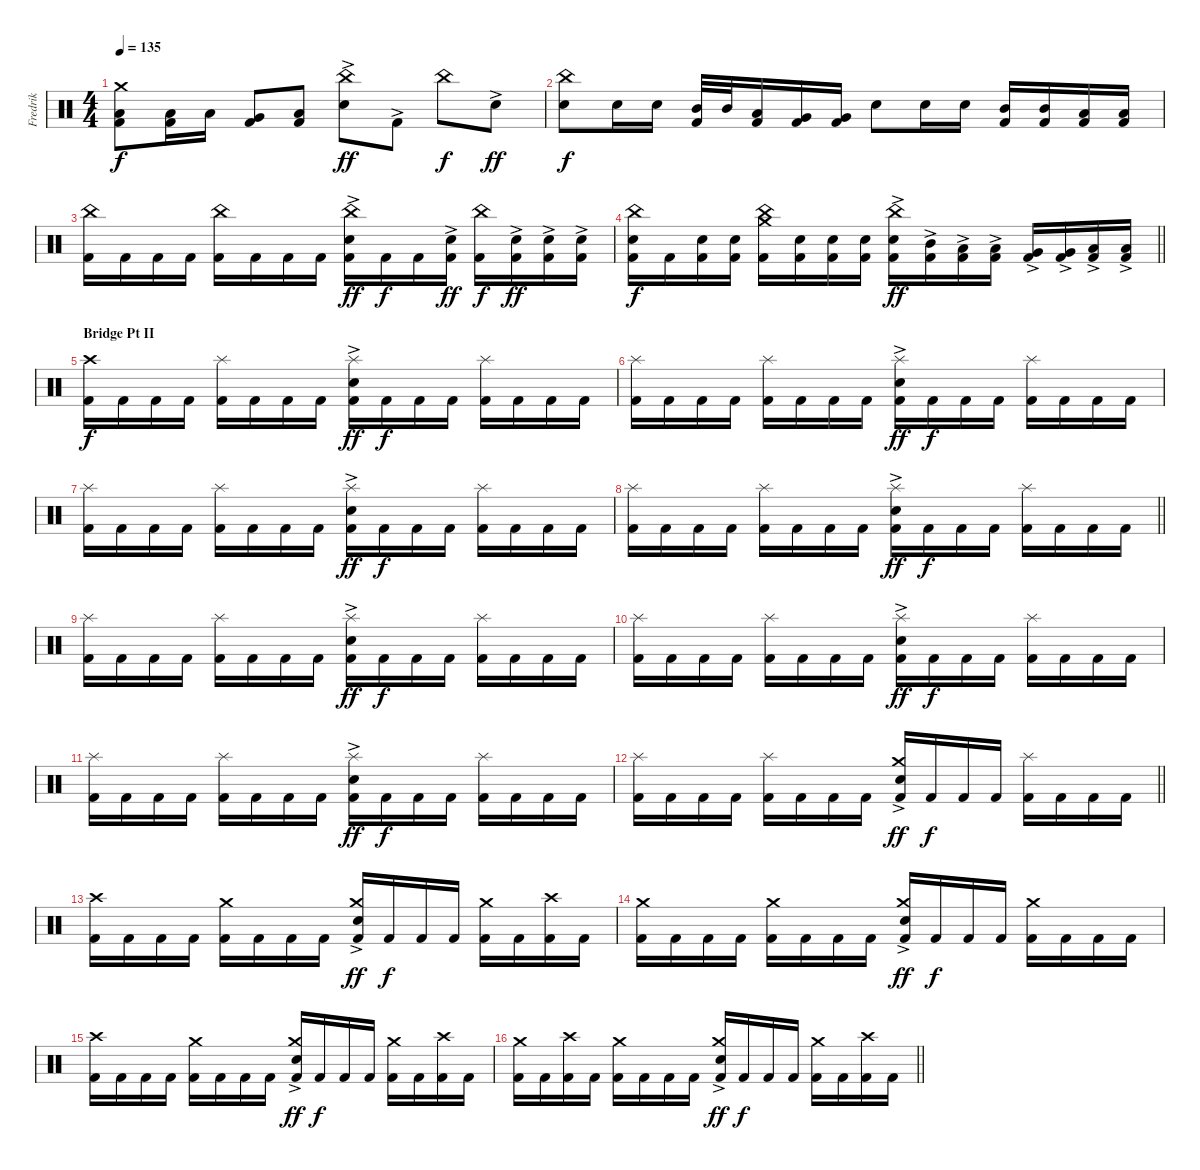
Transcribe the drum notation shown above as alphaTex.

\track ("Fredrik" "Fredrik") {instrument percussion}
\staff {score}
\articulation defaults
\ts (4 4)
\section ("" "")
\tempo 135
\clef neutral
\ks c
("Kick (hit) 2" "Low Tom (hit)" "Crash medium (hit)").8{dy f} ("Kick (hit) 2" "Low Tom (hit)").16 "Low Tom (hit)".16 ("Kick (hit) 2" "Very Low Tom (hit)").8 ("Kick (hit) 2" "Low Floor Tom (hit)").8 ("Snare (hit) 2"{ac} "China (hit)").8{dy ff} "Kick (hit) 2"{ac}.8 "China (hit)".8{dy f} "Snare (hit) 2"{ac}.8{dy ff} |
("Snare (hit) 2" "China (hit)").8{dy f} "Snare (hit) 2".16 "Snare (hit) 2".16 ("Kick (hit) 2" "Mid Tom (hit)").32 "Mid Tom (hit)".32 ("Kick (hit) 2" "Low Tom (hit)").16 ("Kick (hit) 2" "Very Low Tom (hit)").16 ("Kick (hit) 2" "Very Low Tom (hit)").16 "Snare (hit) 2".8 "Snare (hit) 2".16 "Snare (hit) 2".16 ("Kick (hit) 2" "Mid Tom (hit)").16 ("Kick (hit) 2" "Mid Tom (hit)").16 ("Kick (hit) 2" "Low Tom (hit)").16 ("Kick (hit) 2" "Low Tom (hit)").16 |
("Kick (hit) 2" "China (hit)").16 "Kick (hit) 2".16 "Kick (hit) 2".16 "Kick (hit) 2".16 ("Kick (hit) 2" "China (hit)").16 "Kick (hit) 2".16 "Kick (hit) 2".16 "Kick (hit) 2".16 ("Kick (hit) 2" "Snare (hit) 2"{ac} "China (hit)").16{dy ff} "Kick (hit) 2".16{dy f} "Kick (hit) 2".16 ("Kick (hit) 2" "Snare (hit) 2"{ac}).16{dy ff} ("Kick (hit) 2" "China (hit)").16{dy f} ("Kick (hit) 2" "Snare (hit) 2"{ac}).16{dy ff} ("Kick (hit) 2" "Snare (hit) 2"{ac}).16 ("Kick (hit) 2" "Snare (hit) 2"{ac}).16 |
\barLineRight lightlight
("Kick (hit) 2" "Snare (hit) 2" "China (hit)").16{dy f} "Kick (hit) 2".16 ("Kick (hit) 2" "Snare (hit) 2").16 ("Kick (hit) 2" "Snare (hit) 2").16 ("Kick (hit) 2" "China (hit)" "Crash medium (hit)").16 ("Kick (hit) 2" "Snare (hit) 2").16 ("Kick (hit) 2" "Snare (hit) 2").16 ("Kick (hit) 2" "Snare (hit) 2").16 ("Kick (hit) 2" "Snare (hit) 2"{ac} "China (hit)").16{dy ff} ("Kick (hit) 2" "Mid Tom (hit)"{ac}).16 ("Kick (hit) 2" "Low Tom (hit)"{ac}).16 ("Kick (hit) 2" "Low Tom (hit)"{ac}).16 ("Kick (hit) 2" "Very Low Tom (hit)"{ac}).16 ("Kick (hit) 2" "Very Low Tom (hit)"{ac}).16 ("Kick (hit) 2" "Low Floor Tom (hit)"{ac}).16 ("Kick (hit) 2" "Low Floor Tom (hit)"{ac}).16 |
\section ("" "Bridge Pt II")
("Kick (hit) 2" "Crash high (hit)").16{dy f} "Kick (hit) 2".16 "Kick (hit) 2".16 "Kick (hit) 2".16 ("Kick (hit) 2" "Splash (hit)").16 "Kick (hit) 2".16 "Kick (hit) 2".16 "Kick (hit) 2".16 ("Kick (hit) 2" "Snare (hit) 2"{ac} "Splash (hit)").16{dy ff} "Kick (hit) 2".16{dy f} "Kick (hit) 2".16 "Kick (hit) 2".16 ("Kick (hit) 2" "Splash (hit)").16 "Kick (hit) 2".16 "Kick (hit) 2".16 "Kick (hit) 2".16 |
("Kick (hit) 2" "Splash (hit)").16 "Kick (hit) 2".16 "Kick (hit) 2".16 "Kick (hit) 2".16 ("Kick (hit) 2" "Splash (hit)").16 "Kick (hit) 2".16 "Kick (hit) 2".16 "Kick (hit) 2".16 ("Kick (hit) 2" "Snare (hit) 2"{ac} "Splash (hit)").16{dy ff} "Kick (hit) 2".16{dy f} "Kick (hit) 2".16 "Kick (hit) 2".16 ("Kick (hit) 2" "Splash (hit)").16 "Kick (hit) 2".16 "Kick (hit) 2".16 "Kick (hit) 2".16 |
("Kick (hit) 2" "Splash (hit)").16 "Kick (hit) 2".16 "Kick (hit) 2".16 "Kick (hit) 2".16 ("Kick (hit) 2" "Splash (hit)").16 "Kick (hit) 2".16 "Kick (hit) 2".16 "Kick (hit) 2".16 ("Kick (hit) 2" "Snare (hit) 2"{ac} "Splash (hit)").16{dy ff} "Kick (hit) 2".16{dy f} "Kick (hit) 2".16 "Kick (hit) 2".16 ("Kick (hit) 2" "Splash (hit)").16 "Kick (hit) 2".16 "Kick (hit) 2".16 "Kick (hit) 2".16 |
\barLineRight lightlight
("Kick (hit) 2" "Splash (hit)").16 "Kick (hit) 2".16 "Kick (hit) 2".16 "Kick (hit) 2".16 ("Kick (hit) 2" "Splash (hit)").16 "Kick (hit) 2".16 "Kick (hit) 2".16 "Kick (hit) 2".16 ("Kick (hit) 2" "Snare (hit) 2"{ac} "Splash (hit)").16{dy ff} "Kick (hit) 2".16{dy f} "Kick (hit) 2".16 "Kick (hit) 2".16 ("Kick (hit) 2" "Splash (hit)").16 "Kick (hit) 2".16 "Kick (hit) 2".16 "Kick (hit) 2".16 |
\section ("" "")
("Kick (hit) 2" "Splash (hit)").16 "Kick (hit) 2".16 "Kick (hit) 2".16 "Kick (hit) 2".16 ("Kick (hit) 2" "Splash (hit)").16 "Kick (hit) 2".16 "Kick (hit) 2".16 "Kick (hit) 2".16 ("Kick (hit) 2" "Snare (hit) 2"{ac} "Splash (hit)").16{dy ff} "Kick (hit) 2".16{dy f} "Kick (hit) 2".16 "Kick (hit) 2".16 ("Kick (hit) 2" "Splash (hit)").16 "Kick (hit) 2".16 "Kick (hit) 2".16 "Kick (hit) 2".16 |
("Kick (hit) 2" "Splash (hit)").16 "Kick (hit) 2".16 "Kick (hit) 2".16 "Kick (hit) 2".16 ("Kick (hit) 2" "Splash (hit)").16 "Kick (hit) 2".16 "Kick (hit) 2".16 "Kick (hit) 2".16 ("Kick (hit) 2" "Snare (hit) 2"{ac} "Splash (hit)").16{dy ff} "Kick (hit) 2".16{dy f} "Kick (hit) 2".16 "Kick (hit) 2".16 ("Kick (hit) 2" "Splash (hit)").16 "Kick (hit) 2".16 "Kick (hit) 2".16 "Kick (hit) 2".16 |
("Kick (hit) 2" "Splash (hit)").16 "Kick (hit) 2".16 "Kick (hit) 2".16 "Kick (hit) 2".16 ("Kick (hit) 2" "Splash (hit)").16 "Kick (hit) 2".16 "Kick (hit) 2".16 "Kick (hit) 2".16 ("Kick (hit) 2" "Snare (hit) 2"{ac} "Splash (hit)").16{dy ff} "Kick (hit) 2".16{dy f} "Kick (hit) 2".16 "Kick (hit) 2".16 ("Kick (hit) 2" "Splash (hit)").16 "Kick (hit) 2".16 "Kick (hit) 2".16 "Kick (hit) 2".16 |
\barLineRight lightlight
("Kick (hit) 2" "Splash (hit)").16 "Kick (hit) 2".16 "Kick (hit) 2".16 "Kick (hit) 2".16 ("Kick (hit) 2" "Splash (hit)").16 "Kick (hit) 2".16 "Kick (hit) 2".16 "Kick (hit) 2".16 ("Kick (hit) 2" "Snare (hit) 2"{ac} "Crash medium (hit)").16{dy ff} "Kick (hit) 2".16{dy f} "Kick (hit) 2".16 "Kick (hit) 2".16 ("Kick (hit) 2" "Splash (hit)").16 "Kick (hit) 2".16 "Kick (hit) 2".16 "Kick (hit) 2".16 |
\section ("" "")
("Kick (hit) 2" "Crash high (hit)").16 "Kick (hit) 2".16 "Kick (hit) 2".16 "Kick (hit) 2".16 ("Kick (hit) 2" "Crash medium (hit)").16 "Kick (hit) 2".16 "Kick (hit) 2".16 "Kick (hit) 2".16 ("Kick (hit) 2" "Snare (hit) 2"{ac} "Crash medium (hit)").16{dy ff} "Kick (hit) 2".16{dy f} "Kick (hit) 2".16 "Kick (hit) 2".16 ("Kick (hit) 2" "Crash medium (hit)").16 "Kick (hit) 2".16 ("Kick (hit) 2" "Crash high (hit)").16 "Kick (hit) 2".16 |
("Kick (hit) 2" "Crash medium (hit)").16 "Kick (hit) 2".16 "Kick (hit) 2".16 "Kick (hit) 2".16 ("Kick (hit) 2" "Crash medium (hit)").16 "Kick (hit) 2".16 "Kick (hit) 2".16 "Kick (hit) 2".16 ("Kick (hit) 2" "Snare (hit) 2"{ac} "Crash medium (hit)").16{dy ff} "Kick (hit) 2".16{dy f} "Kick (hit) 2".16 "Kick (hit) 2".16 ("Kick (hit) 2" "Crash medium (hit)").16 "Kick (hit) 2".16 "Kick (hit) 2".16 "Kick (hit) 2".16 |
("Kick (hit) 2" "Crash high (hit)").16 "Kick (hit) 2".16 "Kick (hit) 2".16 "Kick (hit) 2".16 ("Kick (hit) 2" "Crash medium (hit)").16 "Kick (hit) 2".16 "Kick (hit) 2".16 "Kick (hit) 2".16 ("Kick (hit) 2" "Snare (hit) 2"{ac} "Crash medium (hit)").16{dy ff} "Kick (hit) 2".16{dy f} "Kick (hit) 2".16 "Kick (hit) 2".16 ("Kick (hit) 2" "Crash medium (hit)").16 "Kick (hit) 2".16 ("Kick (hit) 2" "Crash high (hit)").16 "Kick (hit) 2".16 |
\barLineRight lightlight
("Kick (hit) 2" "Crash medium (hit)").16 "Kick (hit) 2".16 ("Kick (hit) 2" "Crash high (hit)").16 "Kick (hit) 2".16 ("Kick (hit) 2" "Crash medium (hit)").16 "Kick (hit) 2".16 "Kick (hit) 2".16 "Kick (hit) 2".16 ("Kick (hit) 2" "Snare (hit) 2"{ac} "Crash medium (hit)").16{dy ff} "Kick (hit) 2".16{dy f} "Kick (hit) 2".16 "Kick (hit) 2".16 ("Kick (hit) 2" "Crash medium (hit)").16 "Kick (hit) 2".16 ("Kick (hit) 2" "Crash high (hit)").16 "Kick (hit) 2".16
